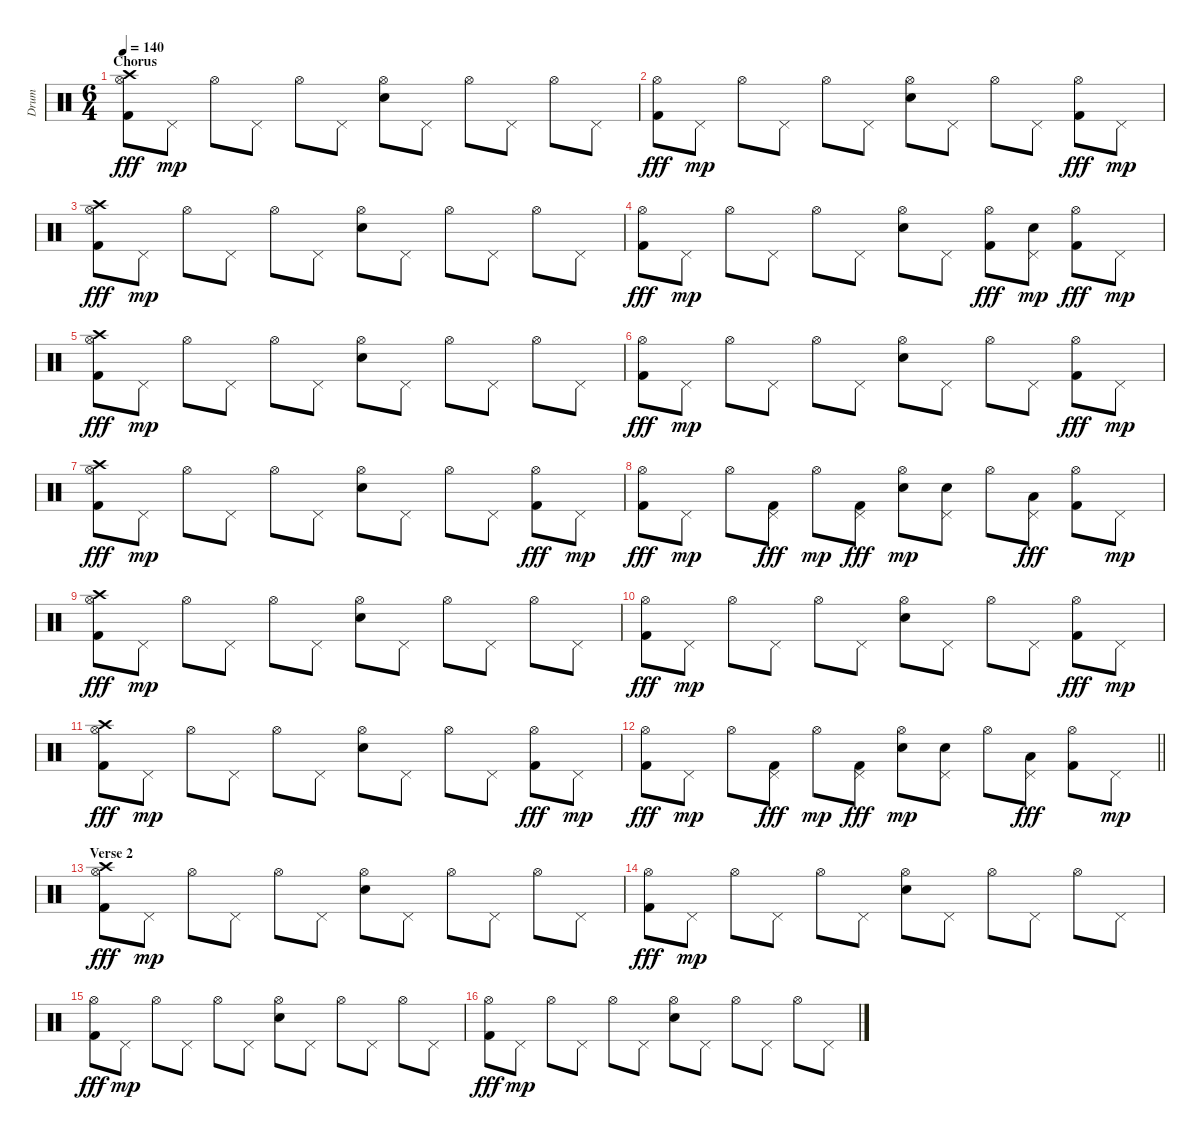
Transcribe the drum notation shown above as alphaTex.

\track ("Drum" "Drum") {instrument percussion}
\staff {score}
\articulation defaults
\ts (6 4)
\section ("" "Chorus")
\tempo 140
\clef neutral
\ks c
("Hi-Hat (open)" "Kick (hit) 2" "Crash high (hit)").8{dy fff} "Pedal Hi-Hat (hit)".8{dy mp} "Hi-Hat (open)".8 "Pedal Hi-Hat (hit)".8 "Hi-Hat (open)".8 "Pedal Hi-Hat (hit)".8 ("Hi-Hat (open)" "Electric Snare (hit)").8 "Pedal Hi-Hat (hit)".8 "Hi-Hat (open)".8 "Pedal Hi-Hat (hit)".8 "Hi-Hat (open)".8 "Pedal Hi-Hat (hit)".8 |
("Hi-Hat (open)" "Kick (hit) 2").8{dy fff} "Pedal Hi-Hat (hit)".8{dy mp} "Hi-Hat (open)".8 "Pedal Hi-Hat (hit)".8 "Hi-Hat (open)".8 "Pedal Hi-Hat (hit)".8 ("Hi-Hat (open)" "Electric Snare (hit)").8 "Pedal Hi-Hat (hit)".8 "Hi-Hat (open)".8 "Pedal Hi-Hat (hit)".8 ("Hi-Hat (open)" "Kick (hit) 2").8{dy fff} "Pedal Hi-Hat (hit)".8{dy mp} |
("Hi-Hat (open)" "Kick (hit) 2" "Crash high (hit)").8{dy fff} "Pedal Hi-Hat (hit)".8{dy mp} "Hi-Hat (open)".8 "Pedal Hi-Hat (hit)".8 "Hi-Hat (open)".8 "Pedal Hi-Hat (hit)".8 ("Hi-Hat (open)" "Electric Snare (hit)").8 "Pedal Hi-Hat (hit)".8 "Hi-Hat (open)".8 "Pedal Hi-Hat (hit)".8 "Hi-Hat (open)".8 "Pedal Hi-Hat (hit)".8 |
("Hi-Hat (open)" "Kick (hit) 2").8{dy fff} "Pedal Hi-Hat (hit)".8{dy mp} "Hi-Hat (open)".8 "Pedal Hi-Hat (hit)".8 "Hi-Hat (open)".8 "Pedal Hi-Hat (hit)".8 ("Hi-Hat (open)" "Electric Snare (hit)").8 "Pedal Hi-Hat (hit)".8 ("Hi-Hat (open)" "Kick (hit) 2").8{dy fff} ("Pedal Hi-Hat (hit)" "Electric Snare (hit)").8{dy mp} ("Hi-Hat (open)" "Kick (hit) 2").8{dy fff} "Pedal Hi-Hat (hit)".8{dy mp} |
("Hi-Hat (open)" "Kick (hit) 2" "Crash high (hit)").8{dy fff} "Pedal Hi-Hat (hit)".8{dy mp} "Hi-Hat (open)".8 "Pedal Hi-Hat (hit)".8 "Hi-Hat (open)".8 "Pedal Hi-Hat (hit)".8 ("Hi-Hat (open)" "Electric Snare (hit)").8 "Pedal Hi-Hat (hit)".8 "Hi-Hat (open)".8 "Pedal Hi-Hat (hit)".8 "Hi-Hat (open)".8 "Pedal Hi-Hat (hit)".8 |
("Hi-Hat (open)" "Kick (hit) 2").8{dy fff} "Pedal Hi-Hat (hit)".8{dy mp} "Hi-Hat (open)".8 "Pedal Hi-Hat (hit)".8 "Hi-Hat (open)".8 "Pedal Hi-Hat (hit)".8 ("Hi-Hat (open)" "Electric Snare (hit)").8 "Pedal Hi-Hat (hit)".8 "Hi-Hat (open)".8 "Pedal Hi-Hat (hit)".8 ("Hi-Hat (open)" "Kick (hit) 2").8{dy fff} "Pedal Hi-Hat (hit)".8{dy mp} |
("Hi-Hat (open)" "Kick (hit) 2" "Crash high (hit)").8{dy fff} "Pedal Hi-Hat (hit)".8{dy mp} "Hi-Hat (open)".8 "Pedal Hi-Hat (hit)".8 "Hi-Hat (open)".8 "Pedal Hi-Hat (hit)".8 ("Hi-Hat (open)" "Electric Snare (hit)").8 "Pedal Hi-Hat (hit)".8 "Hi-Hat (open)".8 "Pedal Hi-Hat (hit)".8 ("Hi-Hat (open)" "Kick (hit) 2").8{dy fff} "Pedal Hi-Hat (hit)".8{dy mp} |
("Hi-Hat (open)" "Kick (hit) 2").8{dy fff} "Pedal Hi-Hat (hit)".8{dy mp} "Hi-Hat (open)".8 ("Pedal Hi-Hat (hit)" "Kick (hit) 2").8{dy fff} "Hi-Hat (open)".8{dy mp} ("Pedal Hi-Hat (hit)" "Kick (hit) 2").8{dy fff} ("Hi-Hat (open)" "Electric Snare (hit)").8{dy mp} ("Pedal Hi-Hat (hit)" "Electric Snare (hit)").8 "Hi-Hat (open)".8 ("Pedal Hi-Hat (hit)" "Low Tom (hit)").8{dy fff} ("Hi-Hat (open)" "Kick (hit) 2").8 "Pedal Hi-Hat (hit)".8{dy mp} |
("Hi-Hat (open)" "Kick (hit) 2" "Crash high (hit)").8{dy fff} "Pedal Hi-Hat (hit)".8{dy mp} "Hi-Hat (open)".8 "Pedal Hi-Hat (hit)".8 "Hi-Hat (open)".8 "Pedal Hi-Hat (hit)".8 ("Hi-Hat (open)" "Electric Snare (hit)").8 "Pedal Hi-Hat (hit)".8 "Hi-Hat (open)".8 "Pedal Hi-Hat (hit)".8 "Hi-Hat (open)".8 "Pedal Hi-Hat (hit)".8 |
("Hi-Hat (open)" "Kick (hit) 2").8{dy fff} "Pedal Hi-Hat (hit)".8{dy mp} "Hi-Hat (open)".8 "Pedal Hi-Hat (hit)".8 "Hi-Hat (open)".8 "Pedal Hi-Hat (hit)".8 ("Hi-Hat (open)" "Electric Snare (hit)").8 "Pedal Hi-Hat (hit)".8 "Hi-Hat (open)".8 "Pedal Hi-Hat (hit)".8 ("Hi-Hat (open)" "Kick (hit) 2").8{dy fff} "Pedal Hi-Hat (hit)".8{dy mp} |
("Hi-Hat (open)" "Kick (hit) 2" "Crash high (hit)").8{dy fff} "Pedal Hi-Hat (hit)".8{dy mp} "Hi-Hat (open)".8 "Pedal Hi-Hat (hit)".8 "Hi-Hat (open)".8 "Pedal Hi-Hat (hit)".8 ("Hi-Hat (open)" "Electric Snare (hit)").8 "Pedal Hi-Hat (hit)".8 "Hi-Hat (open)".8 "Pedal Hi-Hat (hit)".8 ("Hi-Hat (open)" "Kick (hit) 2").8{dy fff} "Pedal Hi-Hat (hit)".8{dy mp} |
\barLineRight lightlight
("Hi-Hat (open)" "Kick (hit) 2").8{dy fff} "Pedal Hi-Hat (hit)".8{dy mp} "Hi-Hat (open)".8 ("Pedal Hi-Hat (hit)" "Kick (hit) 2").8{dy fff} "Hi-Hat (open)".8{dy mp} ("Pedal Hi-Hat (hit)" "Kick (hit) 2").8{dy fff} ("Hi-Hat (open)" "Electric Snare (hit)").8{dy mp} ("Pedal Hi-Hat (hit)" "Electric Snare (hit)").8 "Hi-Hat (open)".8 ("Pedal Hi-Hat (hit)" "Low Tom (hit)").8{dy fff} ("Hi-Hat (open)" "Kick (hit) 2").8 "Pedal Hi-Hat (hit)".8{dy mp} |
\section ("" "Verse 2")
("Hi-Hat (open)" "Kick (hit) 2" "Crash high (hit)").8{dy fff} "Pedal Hi-Hat (hit)".8{dy mp} "Hi-Hat (open)".8 "Pedal Hi-Hat (hit)".8 "Hi-Hat (open)".8 "Pedal Hi-Hat (hit)".8 ("Hi-Hat (open)" "Electric Snare (hit)").8 "Pedal Hi-Hat (hit)".8 "Hi-Hat (open)".8 "Pedal Hi-Hat (hit)".8 "Hi-Hat (open)".8 "Pedal Hi-Hat (hit)".8 |
("Hi-Hat (open)" "Kick (hit) 2").8{dy fff} "Pedal Hi-Hat (hit)".8{dy mp} "Hi-Hat (open)".8 "Pedal Hi-Hat (hit)".8 "Hi-Hat (open)".8 "Pedal Hi-Hat (hit)".8 ("Hi-Hat (open)" "Electric Snare (hit)").8 "Pedal Hi-Hat (hit)".8 "Hi-Hat (open)".8 "Pedal Hi-Hat (hit)".8 "Hi-Hat (open)".8 "Pedal Hi-Hat (hit)".8 |
("Hi-Hat (open)" "Kick (hit) 2").8{dy fff} "Pedal Hi-Hat (hit)".8{dy mp} "Hi-Hat (open)".8 "Pedal Hi-Hat (hit)".8 "Hi-Hat (open)".8 "Pedal Hi-Hat (hit)".8 ("Hi-Hat (open)" "Electric Snare (hit)").8 "Pedal Hi-Hat (hit)".8 "Hi-Hat (open)".8 "Pedal Hi-Hat (hit)".8 "Hi-Hat (open)".8 "Pedal Hi-Hat (hit)".8 |
("Hi-Hat (open)" "Kick (hit) 2").8{dy fff} "Pedal Hi-Hat (hit)".8{dy mp} "Hi-Hat (open)".8 "Pedal Hi-Hat (hit)".8 "Hi-Hat (open)".8 "Pedal Hi-Hat (hit)".8 ("Hi-Hat (open)" "Electric Snare (hit)").8 "Pedal Hi-Hat (hit)".8 "Hi-Hat (open)".8 "Pedal Hi-Hat (hit)".8 "Hi-Hat (open)".8 "Pedal Hi-Hat (hit)".8
